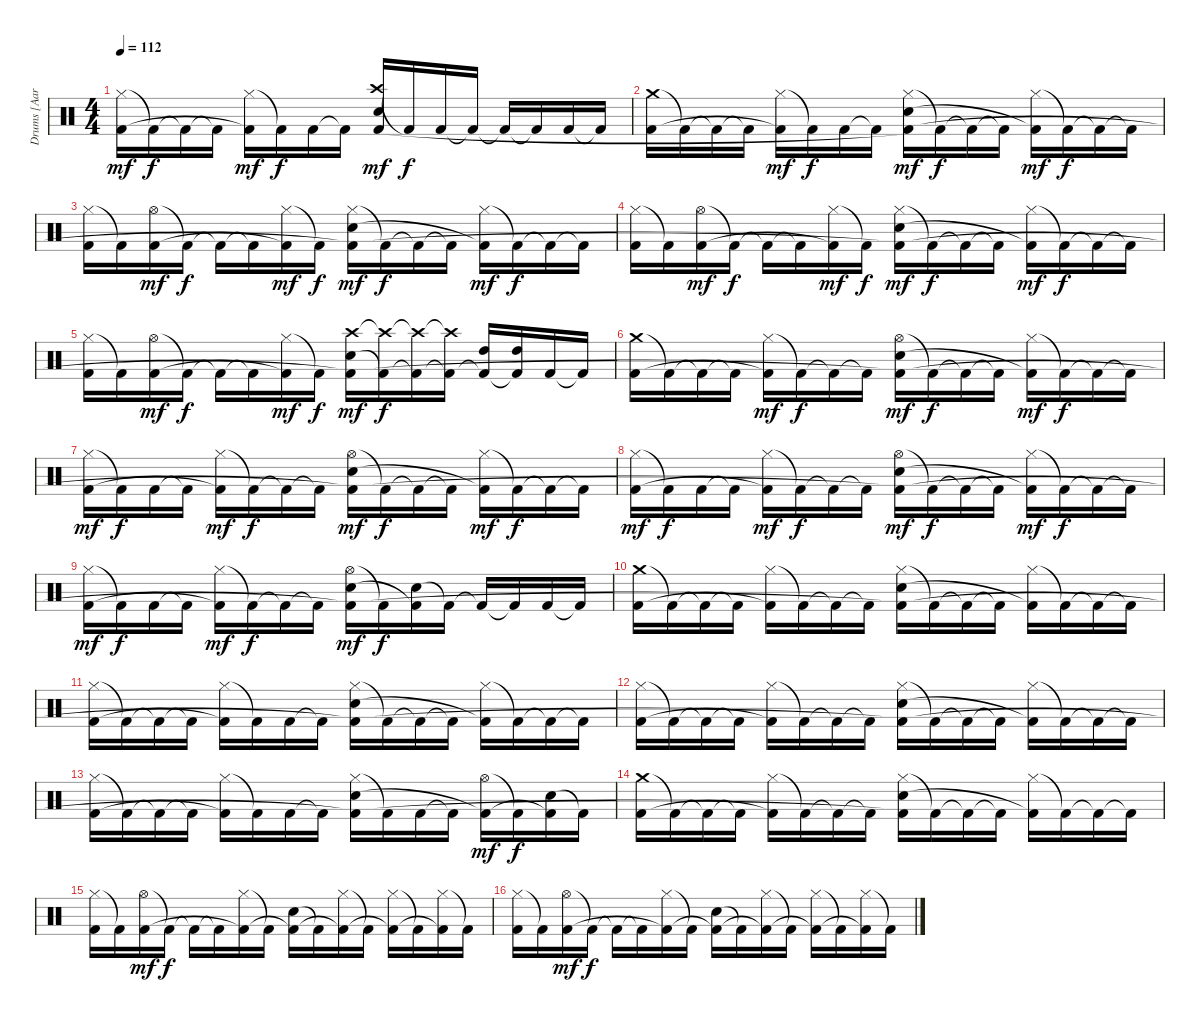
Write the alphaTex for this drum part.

\track ("Drums [Aaron Harris]" "Drums [Aar") {instrument percussion}
\staff {score}
\articulation defaults
\ts (4 4)
\tempo 112
\clef neutral
\ks c
("Hi-Hat (closed)" "Kick (hit) 2").16{dy mf} "Kick (hit) 2"{t}.16{dy f} "Kick (hit) 2"{t}.16 "Kick (hit) 2"{t}.16 ("Hi-Hat (closed)" "Kick (hit) 2"{t}).16{dy mf} "Kick (hit) 2"{t}.16{dy f} "Kick (hit) 2".16 "Kick (hit) 2"{t}.16 ("Crash high (hit)" "Electric Snare (hit)" "Kick (hit) 2"{t}).16{dy mf} "Kick (hit) 2"{t}.16{dy f} "Kick (hit) 2".16 "Kick (hit) 2"{t}.16 "Kick (hit) 2"{t}.16 "Kick (hit) 2"{t}.16 "Kick (hit) 2".16 "Kick (hit) 2"{t}.16 |
("Crash medium (hit)" "Kick (hit) 2").16 "Kick (hit) 2"{t}.16 "Kick (hit) 2"{t}.16 "Kick (hit) 2"{t}.16 ("Hi-Hat (closed)" "Kick (hit) 2"{t}).16{dy mf} "Kick (hit) 2"{t}.16{dy f} "Kick (hit) 2".16 "Kick (hit) 2"{t}.16 ("Hi-Hat (closed)" "Electric Snare (hit)" "Kick (hit) 2"{t}).16{dy mf} "Kick (hit) 2"{t}.16{dy f} "Kick (hit) 2"{t}.16 "Kick (hit) 2"{t}.16 ("Hi-Hat (closed)" "Kick (hit) 2"{t}).16{dy mf} "Kick (hit) 2"{t}.16{dy f} "Kick (hit) 2"{t}.16 "Kick (hit) 2"{t}.16 |
("Hi-Hat (closed)" "Kick (hit) 2").16 "Kick (hit) 2"{t}.16 ("Hi-Hat (open)" "Kick (hit) 2").16{dy mf} "Kick (hit) 2"{t}.16{dy f} "Kick (hit) 2"{t}.16 "Kick (hit) 2"{t}.16 ("Hi-Hat (closed)" "Kick (hit) 2"{t}).16{dy mf} "Kick (hit) 2"{t}.16{dy f} ("Hi-Hat (closed)" "Electric Snare (hit)" "Kick (hit) 2"{t}).16{dy mf} "Kick (hit) 2"{t}.16{dy f} "Kick (hit) 2"{t}.16 "Kick (hit) 2"{t}.16 ("Hi-Hat (closed)" "Kick (hit) 2"{t}).16{dy mf} "Kick (hit) 2"{t}.16{dy f} "Kick (hit) 2"{t}.16 "Kick (hit) 2"{t}.16 |
("Hi-Hat (closed)" "Kick (hit) 2").16 "Kick (hit) 2"{t}.16 ("Hi-Hat (open)" "Kick (hit) 2").16{dy mf} "Kick (hit) 2"{t}.16{dy f} "Kick (hit) 2"{t}.16 "Kick (hit) 2"{t}.16 ("Hi-Hat (closed)" "Kick (hit) 2"{t}).16{dy mf} "Kick (hit) 2"{t}.16{dy f} ("Hi-Hat (closed)" "Electric Snare (hit)" "Kick (hit) 2"{t}).16{dy mf} "Kick (hit) 2"{t}.16{dy f} "Kick (hit) 2"{t}.16 "Kick (hit) 2"{t}.16 ("Hi-Hat (closed)" "Kick (hit) 2"{t}).16{dy mf} "Kick (hit) 2"{t}.16{dy f} "Kick (hit) 2"{t}.16 "Kick (hit) 2"{t}.16 |
("Hi-Hat (closed)" "Kick (hit) 2").16 "Kick (hit) 2"{t}.16 ("Hi-Hat (open)" "Kick (hit) 2").16{dy mf} "Kick (hit) 2"{t}.16{dy f} "Kick (hit) 2"{t}.16 "Kick (hit) 2"{t}.16 ("Hi-Hat (closed)" "Kick (hit) 2"{t}).16{dy mf} "Kick (hit) 2"{t}.16{dy f} ("Crash high (hit)" "Electric Snare (hit)" "Kick (hit) 2"{t}).16{dy mf} ("Crash high (hit)"{t} "Kick (hit) 2"{t}).16{dy f} ("Crash high (hit)"{t} "Kick (hit) 2"{t}).16 ("Crash high (hit)"{t} "Kick (hit) 2"{t}).16 ("High Tom (hit)" "Kick (hit) 2"{t}).16 ("High Tom (hit)" "Kick (hit) 2"{t}).16 "Kick (hit) 2".16 "Kick (hit) 2"{t}.16 |
("Crash medium (hit)" "Kick (hit) 2").16 "Kick (hit) 2"{t}.16 "Kick (hit) 2"{t}.16 "Kick (hit) 2"{t}.16 ("Hi-Hat (closed)" "Kick (hit) 2"{t}).16{dy mf} "Kick (hit) 2"{t}.16{dy f} "Kick (hit) 2"{t}.16 "Kick (hit) 2"{t}.16 ("Hi-Hat (open)" "Electric Snare (hit)" "Kick (hit) 2"{t}).16{dy mf} "Kick (hit) 2"{t}.16{dy f} "Kick (hit) 2"{t}.16 "Kick (hit) 2"{t}.16 ("Hi-Hat (closed)" "Kick (hit) 2"{t}).16{dy mf} "Kick (hit) 2"{t}.16{dy f} "Kick (hit) 2"{t}.16 "Kick (hit) 2"{t}.16 |
("Hi-Hat (closed)" "Kick (hit) 2").16{dy mf} "Kick (hit) 2"{t}.16{dy f} "Kick (hit) 2".16 "Kick (hit) 2"{t}.16 ("Hi-Hat (closed)" "Kick (hit) 2"{t}).16{dy mf} "Kick (hit) 2"{t}.16{dy f} "Kick (hit) 2"{t}.16 "Kick (hit) 2"{t}.16 ("Hi-Hat (open)" "Electric Snare (hit)" "Kick (hit) 2"{t}).16{dy mf} "Kick (hit) 2"{t}.16{dy f} "Kick (hit) 2"{t}.16 "Kick (hit) 2"{t}.16 ("Hi-Hat (closed)" "Kick (hit) 2"{t}).16{dy mf} "Kick (hit) 2"{t}.16{dy f} "Kick (hit) 2"{t}.16 "Kick (hit) 2"{t}.16 |
("Hi-Hat (closed)" "Kick (hit) 2").16{dy mf} "Kick (hit) 2"{t}.16{dy f} "Kick (hit) 2".16 "Kick (hit) 2"{t}.16 ("Hi-Hat (closed)" "Kick (hit) 2"{t}).16{dy mf} "Kick (hit) 2"{t}.16{dy f} "Kick (hit) 2"{t}.16 "Kick (hit) 2"{t}.16 ("Hi-Hat (open)" "Electric Snare (hit)" "Kick (hit) 2"{t}).16{dy mf} "Kick (hit) 2"{t}.16{dy f} "Kick (hit) 2"{t}.16 "Kick (hit) 2"{t}.16 ("Hi-Hat (closed)" "Kick (hit) 2"{t}).16{dy mf} "Kick (hit) 2"{t}.16{dy f} "Kick (hit) 2"{t}.16 "Kick (hit) 2"{t}.16 |
("Hi-Hat (closed)" "Kick (hit) 2").16{dy mf} "Kick (hit) 2"{t}.16{dy f} "Kick (hit) 2".16 "Kick (hit) 2"{t}.16 ("Hi-Hat (closed)" "Kick (hit) 2"{t}).16{dy mf} "Kick (hit) 2"{t}.16{dy f} "Kick (hit) 2"{t}.16 "Kick (hit) 2"{t}.16 ("Hi-Hat (open)" "Electric Snare (hit)" "Kick (hit) 2"{t}).16{dy mf} "Kick (hit) 2"{t}.16{dy f} ("Electric Snare (hit)" "Kick (hit) 2"{t}).16 "Kick (hit) 2"{t}.16 "Kick (hit) 2"{t}.16 "Kick (hit) 2"{t}.16 "Kick (hit) 2".16 "Kick (hit) 2"{t}.16 |
("Crash medium (hit)" "Kick (hit) 2").16 "Kick (hit) 2"{t}.16 "Kick (hit) 2"{t}.16 "Kick (hit) 2"{t}.16 ("Hi-Hat (closed)" "Kick (hit) 2"{t}).16 "Kick (hit) 2"{t}.16 "Kick (hit) 2"{t}.16 "Kick (hit) 2"{t}.16 ("Hi-Hat (closed)" "Electric Snare (hit)" "Kick (hit) 2"{t}).16 "Kick (hit) 2"{t}.16 "Kick (hit) 2"{t}.16 "Kick (hit) 2"{t}.16 ("Hi-Hat (closed)" "Kick (hit) 2"{t}).16 "Kick (hit) 2"{t}.16 "Kick (hit) 2"{t}.16 "Kick (hit) 2"{t}.16 |
("Hi-Hat (closed)" "Kick (hit) 2").16 "Kick (hit) 2"{t}.16 "Kick (hit) 2"{t}.16 "Kick (hit) 2"{t}.16 ("Hi-Hat (closed)" "Kick (hit) 2"{t}).16 "Kick (hit) 2"{t}.16 "Kick (hit) 2".16 "Kick (hit) 2"{t}.16 ("Hi-Hat (closed)" "Electric Snare (hit)" "Kick (hit) 2"{t}).16 "Kick (hit) 2"{t}.16 "Kick (hit) 2"{t}.16 "Kick (hit) 2"{t}.16 ("Hi-Hat (closed)" "Kick (hit) 2"{t}).16 "Kick (hit) 2"{t}.16 "Kick (hit) 2"{t}.16 "Kick (hit) 2"{t}.16 |
("Hi-Hat (closed)" "Kick (hit) 2").16 "Kick (hit) 2"{t}.16 "Kick (hit) 2"{t}.16 "Kick (hit) 2"{t}.16 ("Hi-Hat (closed)" "Kick (hit) 2"{t}).16 "Kick (hit) 2"{t}.16 "Kick (hit) 2"{t}.16 "Kick (hit) 2"{t}.16 ("Hi-Hat (closed)" "Electric Snare (hit)" "Kick (hit) 2"{t}).16 "Kick (hit) 2"{t}.16 "Kick (hit) 2"{t}.16 "Kick (hit) 2"{t}.16 ("Hi-Hat (closed)" "Kick (hit) 2"{t}).16 "Kick (hit) 2"{t}.16 "Kick (hit) 2"{t}.16 "Kick (hit) 2"{t}.16 |
("Hi-Hat (closed)" "Kick (hit) 2").16 "Kick (hit) 2"{t}.16 "Kick (hit) 2"{t}.16 "Kick (hit) 2"{t}.16 ("Hi-Hat (closed)" "Kick (hit) 2"{t}).16 "Kick (hit) 2"{t}.16 "Kick (hit) 2".16 "Kick (hit) 2"{t}.16 ("Hi-Hat (closed)" "Electric Snare (hit)" "Kick (hit) 2"{t}).16 "Kick (hit) 2"{t}.16 "Kick (hit) 2".16 "Kick (hit) 2"{t}.16 ("Hi-Hat (open)" "Kick (hit) 2"{t}).16{dy mf} "Kick (hit) 2"{t}.16{dy f} ("Electric Snare (hit)" "Kick (hit) 2"{t}).16 "Kick (hit) 2"{t}.16 |
("Crash medium (hit)" "Kick (hit) 2").16 "Kick (hit) 2"{t}.16 "Kick (hit) 2"{t}.16 "Kick (hit) 2"{t}.16 ("Hi-Hat (closed)" "Kick (hit) 2"{t}).16 "Kick (hit) 2"{t}.16 "Kick (hit) 2"{t}.16 "Kick (hit) 2"{t}.16 ("Hi-Hat (closed)" "Electric Snare (hit)" "Kick (hit) 2"{t}).16 "Kick (hit) 2"{t}.16 "Kick (hit) 2"{t}.16 "Kick (hit) 2"{t}.16 ("Hi-Hat (closed)" "Kick (hit) 2"{t}).16 "Kick (hit) 2"{t}.16 "Kick (hit) 2"{t}.16 "Kick (hit) 2"{t}.16 |
("Hi-Hat (closed)" "Kick (hit) 2").16 "Kick (hit) 2"{t}.16 ("Hi-Hat (open)" "Kick (hit) 2").16{dy mf} "Kick (hit) 2"{t}.16{dy f} "Kick (hit) 2"{t}.16 "Kick (hit) 2"{t}.16 ("Hi-Hat (closed)" "Kick (hit) 2"{t}).16 "Kick (hit) 2"{t}.16 ("Electric Snare (hit)" "Kick (hit) 2"{t}).16 "Kick (hit) 2"{t}.16 ("Hi-Hat (closed)" "Kick (hit) 2"{t}).16 "Kick (hit) 2"{t}.16 ("Hi-Hat (closed)" "Kick (hit) 2"{t}).16 "Kick (hit) 2"{t}.16 ("Hi-Hat (closed)" "Kick (hit) 2"{t}).16 "Kick (hit) 2"{t}.16 |
("Hi-Hat (closed)" "Kick (hit) 2").16 "Kick (hit) 2"{t}.16 ("Hi-Hat (open)" "Kick (hit) 2").16{dy mf} "Kick (hit) 2"{t}.16{dy f} "Kick (hit) 2"{t}.16 "Kick (hit) 2"{t}.16 ("Hi-Hat (closed)" "Kick (hit) 2"{t}).16 "Kick (hit) 2"{t}.16 ("Electric Snare (hit)" "Kick (hit) 2"{t}).16 "Kick (hit) 2"{t}.16 ("Hi-Hat (closed)" "Kick (hit) 2"{t}).16 "Kick (hit) 2"{t}.16 ("Hi-Hat (closed)" "Kick (hit) 2"{t}).16 "Kick (hit) 2"{t}.16 ("Hi-Hat (closed)" "Kick (hit) 2"{t}).16 "Kick (hit) 2"{t}.16
